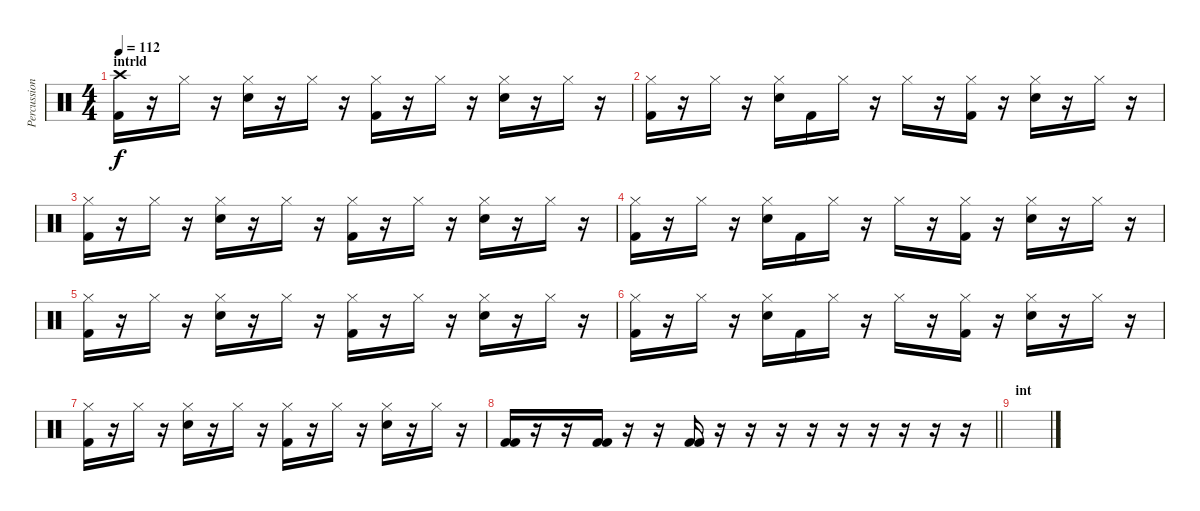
\track ("Percussion" "Percussion") {instrument percussion}
\staff {score}
\articulation defaults
\ts (4 4)
\section ("" "intrld")
\tempo 112
\clef neutral
\ks c
("Crash high (hit)" "Kick (hit) 2").16{dy f} r.16 "Hi-Hat (closed)".16 r.16 ("Hi-Hat (closed)" "Snare (hit) 2").16 r.16 "Hi-Hat (closed)".16 r.16 ("Hi-Hat (closed)" "Kick (hit) 2").16 r.16 "Hi-Hat (closed)".16 r.16 ("Hi-Hat (closed)" "Snare (hit) 2").16 r.16 "Hi-Hat (closed)".16 r.16 |
("Hi-Hat (closed)" "Kick (hit) 2").16 r.16 "Hi-Hat (closed)".16 r.16 ("Hi-Hat (closed)" "Snare (hit) 2").16 "Kick (hit) 2".16 "Hi-Hat (closed)".16 r.16 "Hi-Hat (closed)".16 r.16 ("Hi-Hat (closed)" "Kick (hit) 2").16 r.16 ("Hi-Hat (closed)" "Snare (hit) 2").16 r.16 "Hi-Hat (closed)".16 r.16 |
("Hi-Hat (closed)" "Kick (hit) 2").16 r.16 "Hi-Hat (closed)".16 r.16 ("Hi-Hat (closed)" "Snare (hit) 2").16 r.16 "Hi-Hat (closed)".16 r.16 ("Hi-Hat (closed)" "Kick (hit) 2").16 r.16 "Hi-Hat (closed)".16 r.16 ("Hi-Hat (closed)" "Snare (hit) 2").16 r.16 "Hi-Hat (closed)".16 r.16 |
("Hi-Hat (closed)" "Kick (hit) 2").16 r.16 "Hi-Hat (closed)".16 r.16 ("Hi-Hat (closed)" "Snare (hit) 2").16 "Kick (hit) 2".16 "Hi-Hat (closed)".16 r.16 "Hi-Hat (closed)".16 r.16 ("Hi-Hat (closed)" "Kick (hit) 2").16 r.16 ("Hi-Hat (closed)" "Snare (hit) 2").16 r.16 "Hi-Hat (closed)".16 r.16 |
("Hi-Hat (closed)" "Kick (hit) 2").16 r.16 "Hi-Hat (closed)".16 r.16 ("Hi-Hat (closed)" "Snare (hit) 2").16 r.16 "Hi-Hat (closed)".16 r.16 ("Hi-Hat (closed)" "Kick (hit) 2").16 r.16 "Hi-Hat (closed)".16 r.16 ("Hi-Hat (closed)" "Snare (hit) 2").16 r.16 "Hi-Hat (closed)".16 r.16 |
("Hi-Hat (closed)" "Kick (hit) 2").16 r.16 "Hi-Hat (closed)".16 r.16 ("Hi-Hat (closed)" "Snare (hit) 2").16 "Kick (hit) 2".16 "Hi-Hat (closed)".16 r.16 "Hi-Hat (closed)".16 r.16 ("Hi-Hat (closed)" "Kick (hit) 2").16 r.16 ("Hi-Hat (closed)" "Snare (hit) 2").16 r.16 "Hi-Hat (closed)".16 r.16 |
("Hi-Hat (closed)" "Kick (hit) 2").16 r.16 "Hi-Hat (closed)".16 r.16 ("Hi-Hat (closed)" "Snare (hit) 2").16 r.16 "Hi-Hat (closed)".16 r.16 ("Hi-Hat (closed)" "Kick (hit) 2").16 r.16 "Hi-Hat (closed)".16 r.16 ("Hi-Hat (closed)" "Snare (hit) 2").16 r.16 "Hi-Hat (closed)".16 r.16 |
\barLineRight lightlight
("Kick (hit) 2" "Kick (hit) 2").16 r.16 r.16 ("Kick (hit) 2" "Kick (hit) 2").16 r.16 r.16 ("Kick (hit) 2" "Kick (hit) 2").16 r.16 r.16 r.16 r.16 r.16 r.16 r.16 r.16 r.16 |
\section ("" "int")
